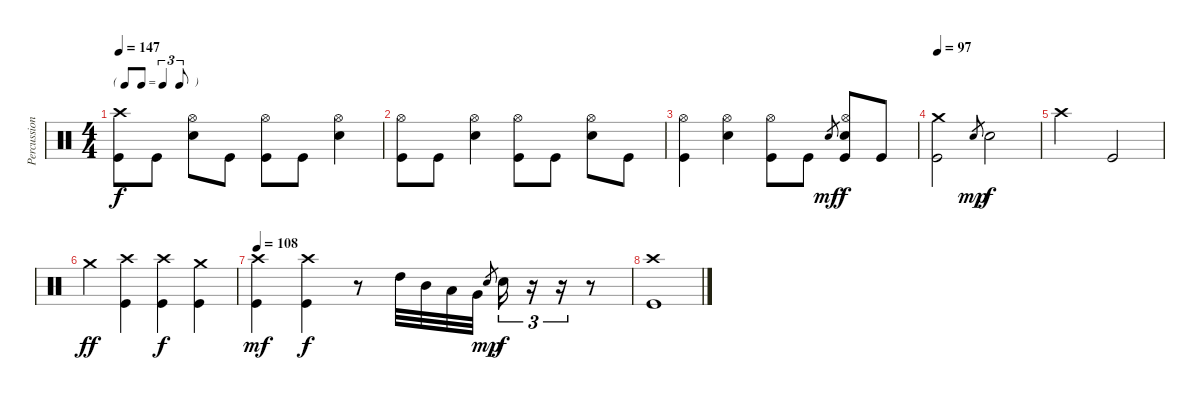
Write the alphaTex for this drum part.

\track ("Percussion" "Percussion") {instrument percussion}
\staff {score}
\articulation defaults
\ts (4 4)
\tf triplet8th
\tempo 147
\clef neutral
\ks c
("Kick (hit)" "Crash high (hit)").8{dy f} "Kick (hit)".8 ("Hi-Hat (open)" "Snare (hit) 2").8 "Kick (hit)".8 ("Kick (hit)" "Hi-Hat (open)").8 "Kick (hit)".8 ("Hi-Hat (open)" "Snare (hit) 2").4 |
("Kick (hit)" "Hi-Hat (open)").8 "Kick (hit)".8 ("Hi-Hat (open)" "Snare (hit) 2").4 ("Kick (hit)" "Hi-Hat (open)").8 "Kick (hit)".8 ("Hi-Hat (open)" "Snare (hit) 2").8 "Kick (hit)".8 |
("Kick (hit)" "Hi-Hat (open)").4 ("Hi-Hat (open)" "Snare (hit) 2").4 ("Kick (hit)" "Hi-Hat (open)").8 "Kick (hit)".8 "Snare (hit) 2".8{gr dy mf} ("Kick (hit)" "Hi-Hat (open)" "Snare (hit) 2").8{dy f} "Kick (hit)".8 |
\tempo 97
("Kick (hit)" "Crash medium (hit)").2 "Snare (hit) 2".8{gr dy mp} "Snare (hit) 2".2{dy f} |
"Crash high (hit)".2 "Kick (hit)".2 |
"Crash medium (hit)".4{dy ff} ("Kick (hit)" "Crash high (hit)").4 ("Kick (hit)" "Crash high (hit)").4{dy f} ("Kick (hit)" "Crash medium (hit)").4 |
\tempo 108
("Kick (hit)" "Crash high (hit)").4{dy mf} ("Kick (hit)" "Crash high (hit)").4{dy f} r.8 "High Tom (hit)".32 "Mid Tom (hit)".32 "Low Tom (hit)".32 "Very Low Tom (hit)".32 "Snare (hit) 2".8{gr dy mp} "Snare (hit) 2".16{tu (3 2) dy f} r.16{tu (3 2)} r.16{tu (3 2)} r.8 |
("Kick (hit)" "Crash high (hit)").1
